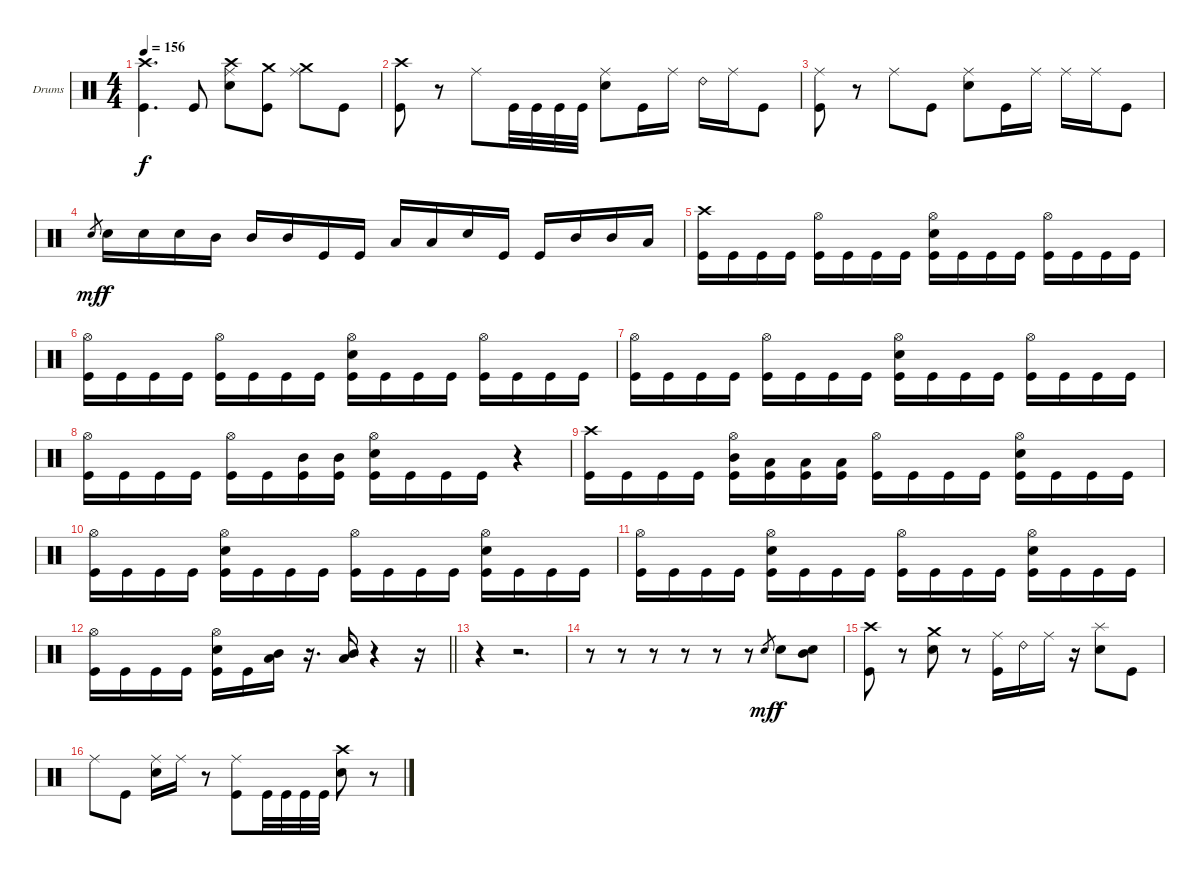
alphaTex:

\bracketExtendMode groupsimilarinstruments
\firstSystemTrackNameOrientation horizontal
\otherSystemsTrackNameOrientation horizontal
\track ("Drumkit" "Drums") {instrument percussion}
\staff {score}
\articulation defaults
\ts (4 4)
\tempo 156
\clef neutral
\ks c
("Crash high (hit)" "Kick (hit)").4{d dy f} "Kick (hit)".8 ("Ride (middle)" "Snare (hit) 2" "Crash high (hit)").8 ("Kick (hit)" "Crash medium (hit)").8 ("Ride (middle)" "Crash medium (hit)").8 "Kick (hit)".8 |
("Crash high (hit)" "Kick (hit)").8 r.8 "Ride (middle)".8 "Kick (hit)".32 "Kick (hit)".32 "Kick (hit)".32 "Kick (hit)".32 ("Ride (middle)" "Snare (hit) 2").8 "Kick (hit)".16 "Ride (middle)".16 "Ride (bell) 2".16 "Ride (middle)".16 "Kick (hit)".8 |
("Ride (middle)" "Kick (hit)").8 r.8 "Ride (middle)".8 "Kick (hit)".8 ("Ride (middle)" "Snare (hit) 2").8 "Kick (hit)".16 "Ride (middle)".16 "Ride (middle)".16 "Ride (middle)".16 "Kick (hit)".8 |
"Snare (hit) 2".8{gr dy mf} "Snare (hit) 2".16{dy f} "Snare (hit) 2".16 "Snare (hit) 2".16 "Mid Tom (hit)".16 "Mid Tom (hit)".16 "Mid Tom (hit)".16 "Kick (hit)".16 "Kick (hit)".16 "Low Tom (hit)".16 "Low Tom (hit)".16 "Snare (hit) 2".16 "Kick (hit)".16 "Kick (hit)".16 "Mid Tom (hit)".16 "Mid Tom (hit)".16 "Low Tom (hit)".16 |
("Crash high (hit)" "Kick (hit)").16 "Kick (hit)".16 "Kick (hit)".16 "Kick (hit)".16 ("Hi-Hat (open)" "Kick (hit)").16 "Kick (hit)".16 "Kick (hit)".16 "Kick (hit)".16 ("Hi-Hat (open)" "Snare (hit) 2" "Kick (hit)").16 "Kick (hit)".16 "Kick (hit)".16 "Kick (hit)".16 ("Hi-Hat (open)" "Kick (hit)").16 "Kick (hit)".16 "Kick (hit)".16 "Kick (hit)".16 |
("Hi-Hat (open)" "Kick (hit)").16 "Kick (hit)".16 "Kick (hit)".16 "Kick (hit)".16 ("Hi-Hat (open)" "Kick (hit)").16 "Kick (hit)".16 "Kick (hit)".16 "Kick (hit)".16 ("Hi-Hat (open)" "Snare (hit) 2" "Kick (hit)").16 "Kick (hit)".16 "Kick (hit)".16 "Kick (hit)".16 ("Hi-Hat (open)" "Kick (hit)").16 "Kick (hit)".16 "Kick (hit)".16 "Kick (hit)".16 |
("Hi-Hat (open)" "Kick (hit)").16 "Kick (hit)".16 "Kick (hit)".16 "Kick (hit)".16 ("Hi-Hat (open)" "Kick (hit)").16 "Kick (hit)".16 "Kick (hit)".16 "Kick (hit)".16 ("Hi-Hat (open)" "Snare (hit) 2" "Kick (hit)").16 "Kick (hit)".16 "Kick (hit)".16 "Kick (hit)".16 ("Hi-Hat (open)" "Kick (hit)").16 "Kick (hit)".16 "Kick (hit)".16 "Kick (hit)".16 |
("Hi-Hat (open)" "Kick (hit)").16 "Kick (hit)".16 "Kick (hit)".16 "Kick (hit)".16 ("Hi-Hat (open)" "Kick (hit)").16 "Kick (hit)".16 ("Mid Tom (hit)" "Kick (hit)").16 ("Mid Tom (hit)" "Kick (hit)").16 ("Hi-Hat (open)" "Snare (hit) 2" "Kick (hit)").16 "Kick (hit)".16 "Kick (hit)".16 "Kick (hit)".16 r.4 |
("Crash high (hit)" "Kick (hit)").16 "Kick (hit)".16 "Kick (hit)".16 "Kick (hit)".16 ("Mid Tom (hit)" "Kick (hit)" "Hi-Hat (open)").16 ("Low Tom (hit)" "Kick (hit)").16 ("Low Tom (hit)" "Kick (hit)").16 ("Low Tom (hit)" "Kick (hit)").16 ("Hi-Hat (open)" "Kick (hit)").16 "Kick (hit)".16 "Kick (hit)".16 "Kick (hit)".16 ("Hi-Hat (open)" "Snare (hit) 2" "Kick (hit)").16 "Kick (hit)".16 "Kick (hit)".16 "Kick (hit)".16 |
("Hi-Hat (open)" "Kick (hit)").16 "Kick (hit)".16 "Kick (hit)".16 "Kick (hit)".16 ("Hi-Hat (open)" "Snare (hit) 2" "Kick (hit)").16 "Kick (hit)".16 "Kick (hit)".16 "Kick (hit)".16 ("Hi-Hat (open)" "Kick (hit)").16 "Kick (hit)".16 "Kick (hit)".16 "Kick (hit)".16 ("Hi-Hat (open)" "Snare (hit) 2" "Kick (hit)").16 "Kick (hit)".16 "Kick (hit)".16 "Kick (hit)".16 |
("Hi-Hat (open)" "Kick (hit)").16 "Kick (hit)".16 "Kick (hit)".16 "Kick (hit)".16 ("Hi-Hat (open)" "Snare (hit) 2" "Kick (hit)").16 "Kick (hit)".16 "Kick (hit)".16 "Kick (hit)".16 ("Hi-Hat (open)" "Kick (hit)").16 "Kick (hit)".16 "Kick (hit)".16 "Kick (hit)".16 ("Hi-Hat (open)" "Snare (hit) 2" "Kick (hit)").16 "Kick (hit)".16 "Kick (hit)".16 "Kick (hit)".16 |
\barLineRight lightlight
("Hi-Hat (open)" "Kick (hit)").16 "Kick (hit)".16 "Kick (hit)".16 "Kick (hit)".16 ("Hi-Hat (open)" "Snare (hit) 2" "Kick (hit)").16 "Kick (hit)".16 ("Mid Tom (hit)" "Low Tom (hit)").16 r.16{d} ("Mid Tom (hit)" "Low Tom (hit)").16 r.4 r.16 |
r.4 r.2{d} |
r.8 r.8 r.8 r.8 r.8 r.8 "Snare (hit) 2".8{gr dy mf} "Snare (hit) 2".8{dy f} ("Snare (hit) 2" "Mid Tom (hit)").8 |
("Crash high (hit)" "Kick (hit)").8 r.8 ("Crash medium (hit)" "Snare (hit) 2").8 r.8 ("Ride (middle)" "Kick (hit)").16 "Ride (bell) 2".16 "Ride (middle)".16 r.16 ("Splash (hit)" "Snare (hit) 2").8 "Kick (hit)".8 |
"Ride (middle)".8 "Kick (hit)".8 ("Ride (middle)" "Snare (hit) 2").16 "Ride (middle)".16 r.8 ("Ride (middle)" "Kick (hit)").8 "Kick (hit)".32 "Kick (hit)".32 "Kick (hit)".32 "Kick (hit)".32 ("Crash high (hit)" "Snare (hit) 2").8 r.8
